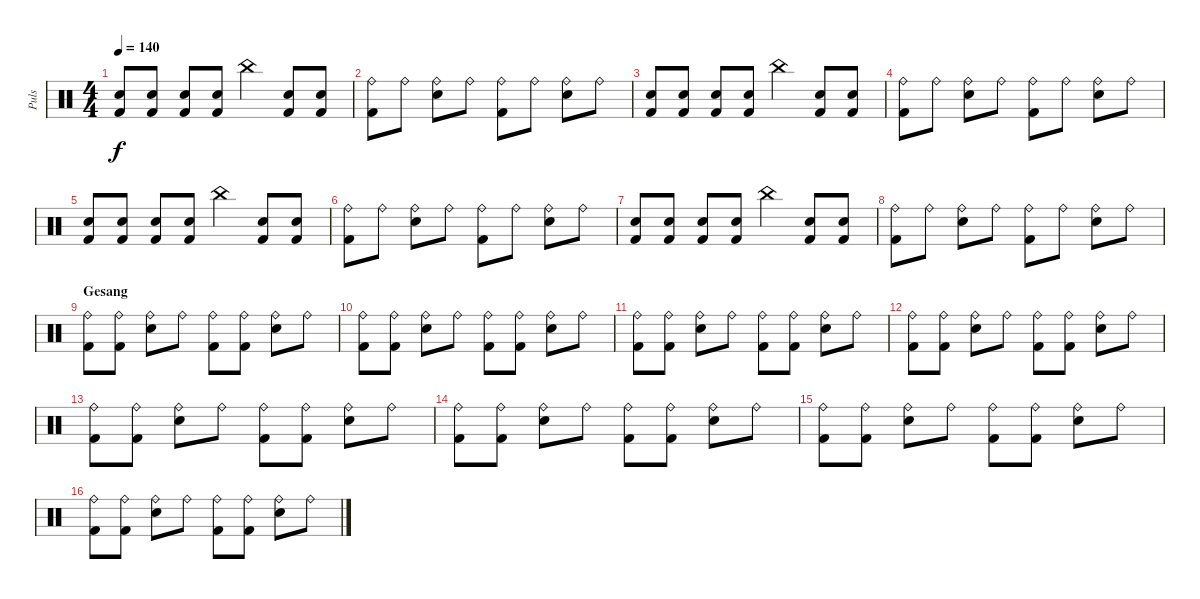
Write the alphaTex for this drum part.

\track ("Puls" "Puls") {instrument percussion}
\staff {score}
\articulation defaults
\ts (4 4)
\tempo 140
\clef neutral
\ks c
("Snare (hit) 2" "Kick (hit) 2").8{dy f} ("Snare (hit) 2" "Kick (hit) 2").8 ("Snare (hit) 2" "Kick (hit) 2").8 ("Snare (hit) 2" "Kick (hit) 2").8 "China (hit)".4 ("Snare (hit) 2" "Kick (hit) 2").8 ("Snare (hit) 2" "Kick (hit) 2").8 |
("Ride (bell)" "Kick (hit) 2").8 "Ride (bell)".8 ("Ride (bell)" "Snare (hit) 2").8 "Ride (bell)".8 ("Ride (bell)" "Kick (hit) 2").8 "Ride (bell)".8 ("Ride (bell)" "Snare (hit) 2").8 "Ride (bell)".8 |
("Snare (hit) 2" "Kick (hit) 2").8 ("Snare (hit) 2" "Kick (hit) 2").8 ("Snare (hit) 2" "Kick (hit) 2").8 ("Snare (hit) 2" "Kick (hit) 2").8 "China (hit)".4 ("Snare (hit) 2" "Kick (hit) 2").8 ("Snare (hit) 2" "Kick (hit) 2").8 |
("Ride (bell)" "Kick (hit) 2").8 "Ride (bell)".8 ("Ride (bell)" "Snare (hit) 2").8 "Ride (bell)".8 ("Ride (bell)" "Kick (hit) 2").8 "Ride (bell)".8 ("Ride (bell)" "Snare (hit) 2").8 "Ride (bell)".8 |
("Snare (hit) 2" "Kick (hit) 2").8 ("Snare (hit) 2" "Kick (hit) 2").8 ("Snare (hit) 2" "Kick (hit) 2").8 ("Snare (hit) 2" "Kick (hit) 2").8 "China (hit)".4 ("Snare (hit) 2" "Kick (hit) 2").8 ("Snare (hit) 2" "Kick (hit) 2").8 |
("Ride (bell)" "Kick (hit) 2").8 "Ride (bell)".8 ("Ride (bell)" "Snare (hit) 2").8 "Ride (bell)".8 ("Ride (bell)" "Kick (hit) 2").8 "Ride (bell)".8 ("Ride (bell)" "Snare (hit) 2").8 "Ride (bell)".8 |
("Snare (hit) 2" "Kick (hit) 2").8 ("Snare (hit) 2" "Kick (hit) 2").8 ("Snare (hit) 2" "Kick (hit) 2").8 ("Snare (hit) 2" "Kick (hit) 2").8 "China (hit)".4 ("Snare (hit) 2" "Kick (hit) 2").8 ("Snare (hit) 2" "Kick (hit) 2").8 |
("Ride (bell)" "Kick (hit) 2").8 "Ride (bell)".8 ("Ride (bell)" "Snare (hit) 2").8 "Ride (bell)".8 ("Ride (bell)" "Kick (hit) 2").8 "Ride (bell)".8 ("Ride (bell)" "Snare (hit) 2").8 "Ride (bell)".8 |
\section ("" "Gesang")
("Ride (bell)" "Kick (hit) 2").8 ("Ride (bell)" "Kick (hit) 2").8 ("Ride (bell)" "Snare (hit) 2").8 "Ride (bell)".8 ("Ride (bell)" "Kick (hit) 2").8 ("Ride (bell)" "Kick (hit) 2").8 ("Ride (bell)" "Snare (hit) 2").8 "Ride (bell)".8 |
("Ride (bell)" "Kick (hit) 2").8 ("Ride (bell)" "Kick (hit) 2").8 ("Ride (bell)" "Snare (hit) 2").8 "Ride (bell)".8 ("Ride (bell)" "Kick (hit) 2").8 ("Ride (bell)" "Kick (hit) 2").8 ("Ride (bell)" "Snare (hit) 2").8 "Ride (bell)".8 |
("Ride (bell)" "Kick (hit) 2").8 ("Ride (bell)" "Kick (hit) 2").8 ("Ride (bell)" "Snare (hit) 2").8 "Ride (bell)".8 ("Ride (bell)" "Kick (hit) 2").8 ("Ride (bell)" "Kick (hit) 2").8 ("Ride (bell)" "Snare (hit) 2").8 "Ride (bell)".8 |
("Ride (bell)" "Kick (hit) 2").8 ("Ride (bell)" "Kick (hit) 2").8 ("Ride (bell)" "Snare (hit) 2").8 "Ride (bell)".8 ("Ride (bell)" "Kick (hit) 2").8 ("Ride (bell)" "Kick (hit) 2").8 ("Ride (bell)" "Snare (hit) 2").8 "Ride (bell)".8 |
("Ride (bell)" "Kick (hit) 2").8 ("Ride (bell)" "Kick (hit) 2").8 ("Ride (bell)" "Snare (hit) 2").8 "Ride (bell)".8 ("Ride (bell)" "Kick (hit) 2").8 ("Ride (bell)" "Kick (hit) 2").8 ("Ride (bell)" "Snare (hit) 2").8 "Ride (bell)".8 |
("Ride (bell)" "Kick (hit) 2").8 ("Ride (bell)" "Kick (hit) 2").8 ("Ride (bell)" "Snare (hit) 2").8 "Ride (bell)".8 ("Ride (bell)" "Kick (hit) 2").8 ("Ride (bell)" "Kick (hit) 2").8 ("Ride (bell)" "Snare (hit) 2").8 "Ride (bell)".8 |
("Ride (bell)" "Kick (hit) 2").8 ("Ride (bell)" "Kick (hit) 2").8 ("Ride (bell)" "Snare (hit) 2").8 "Ride (bell)".8 ("Ride (bell)" "Kick (hit) 2").8 ("Ride (bell)" "Kick (hit) 2").8 ("Ride (bell)" "Snare (hit) 2").8 "Ride (bell)".8 |
("Ride (bell)" "Kick (hit) 2").8 ("Ride (bell)" "Kick (hit) 2").8 ("Ride (bell)" "Snare (hit) 2").8 "Ride (bell)".8 ("Ride (bell)" "Kick (hit) 2").8 ("Ride (bell)" "Kick (hit) 2").8 ("Ride (bell)" "Snare (hit) 2").8 "Ride (bell)".8
